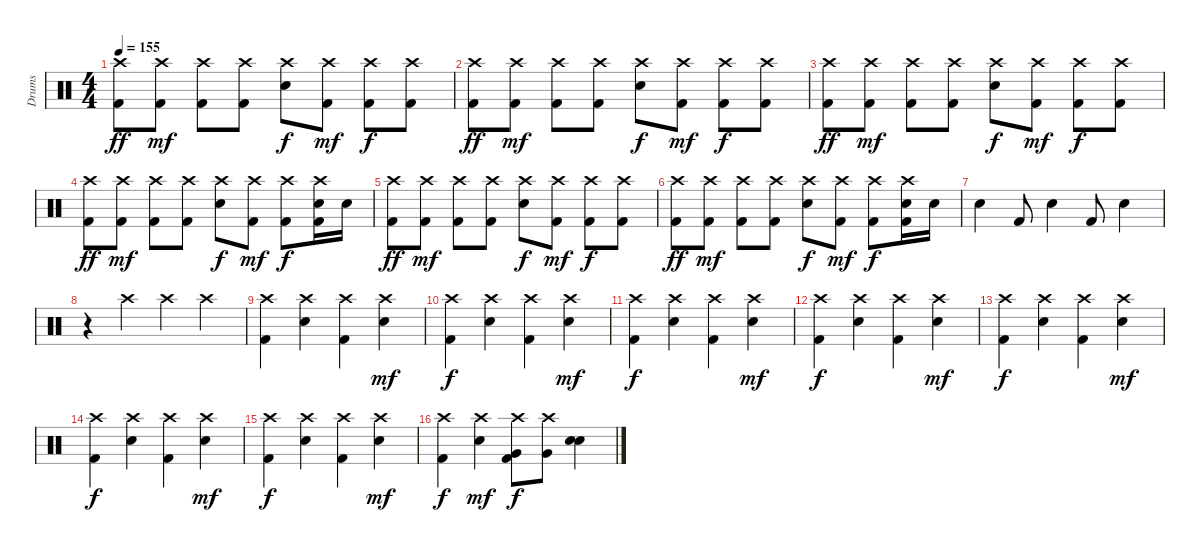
\track ("Drums" "Drums") {instrument percussion}
\staff {score}
\articulation defaults
\ts (4 4)
\tempo 155
\clef neutral
\ks c
("Crash high (hit)" "Kick (hit) 2").8{dy ff} ("Crash high (hit)" "Kick (hit) 2").8{dy mf} ("Crash high (hit)" "Kick (hit) 2").8 ("Crash high (hit)" "Kick (hit) 2").8 ("Crash high (hit)" "Electric Snare (hit)").8{dy f} ("Crash high (hit)" "Kick (hit) 2").8{dy mf} ("Crash high (hit)" "Kick (hit) 2").8{dy f} ("Crash high (hit)" "Kick (hit) 2").8 |
("Crash high (hit)" "Kick (hit) 2").8{dy ff} ("Crash high (hit)" "Kick (hit) 2").8{dy mf} ("Crash high (hit)" "Kick (hit) 2").8 ("Crash high (hit)" "Kick (hit) 2").8 ("Crash high (hit)" "Electric Snare (hit)").8{dy f} ("Crash high (hit)" "Kick (hit) 2").8{dy mf} ("Crash high (hit)" "Kick (hit) 2").8{dy f} ("Crash high (hit)" "Kick (hit) 2").8 |
("Crash high (hit)" "Kick (hit) 2").8{dy ff} ("Crash high (hit)" "Kick (hit) 2").8{dy mf} ("Crash high (hit)" "Kick (hit) 2").8 ("Crash high (hit)" "Kick (hit) 2").8 ("Crash high (hit)" "Electric Snare (hit)").8{dy f} ("Crash high (hit)" "Kick (hit) 2").8{dy mf} ("Crash high (hit)" "Kick (hit) 2").8{dy f} ("Crash high (hit)" "Kick (hit) 2").8 |
("Crash high (hit)" "Kick (hit) 2").8{dy ff} ("Crash high (hit)" "Kick (hit) 2").8{dy mf} ("Crash high (hit)" "Kick (hit) 2").8 ("Crash high (hit)" "Kick (hit) 2").8 ("Crash high (hit)" "Electric Snare (hit)").8{dy f} ("Crash high (hit)" "Kick (hit) 2").8{dy mf} ("Crash high (hit)" "Kick (hit) 2").8{dy f} ("Crash high (hit)" "Electric Snare (hit)" "Kick (hit) 2").16 "Electric Snare (hit)".16 |
("Crash high (hit)" "Kick (hit) 2").8{dy ff} ("Crash high (hit)" "Kick (hit) 2").8{dy mf} ("Crash high (hit)" "Kick (hit) 2").8 ("Crash high (hit)" "Kick (hit) 2").8 ("Crash high (hit)" "Electric Snare (hit)").8{dy f} ("Crash high (hit)" "Kick (hit) 2").8{dy mf} ("Crash high (hit)" "Kick (hit) 2").8{dy f} ("Crash high (hit)" "Kick (hit) 2").8 |
("Crash high (hit)" "Kick (hit) 2").8{dy ff} ("Crash high (hit)" "Kick (hit) 2").8{dy mf} ("Crash high (hit)" "Kick (hit) 2").8 ("Crash high (hit)" "Kick (hit) 2").8 ("Crash high (hit)" "Electric Snare (hit)").8{dy f} ("Crash high (hit)" "Kick (hit) 2").8{dy mf} ("Crash high (hit)" "Kick (hit) 2").8{dy f} ("Crash high (hit)" "Electric Snare (hit)" "Kick (hit) 2").16 "Electric Snare (hit)".16 |
"Electric Snare (hit)".4 "Kick (hit) 2".8 "Electric Snare (hit)".4 "Kick (hit) 2".8 "Electric Snare (hit)".4 |
r.4 "Crash high (hit)".4 "Crash high (hit)".4 "Crash high (hit)".4 |
("Crash high (hit)" "Kick (hit) 2").4 ("Crash high (hit)" "Electric Snare (hit)").4 ("Crash high (hit)" "Kick (hit) 2").4 ("Crash high (hit)" "Electric Snare (hit)").4{dy mf} |
("Crash high (hit)" "Kick (hit) 2").4{dy f} ("Crash high (hit)" "Electric Snare (hit)").4 ("Crash high (hit)" "Kick (hit) 2").4 ("Crash high (hit)" "Electric Snare (hit)").4{dy mf} |
("Crash high (hit)" "Kick (hit) 2").4{dy f} ("Crash high (hit)" "Electric Snare (hit)").4 ("Crash high (hit)" "Kick (hit) 2").4 ("Crash high (hit)" "Electric Snare (hit)").4{dy mf} |
("Crash high (hit)" "Kick (hit) 2").4{dy f} ("Crash high (hit)" "Electric Snare (hit)").4 ("Crash high (hit)" "Kick (hit) 2").4 ("Crash high (hit)" "Electric Snare (hit)").4{dy mf} |
("Crash high (hit)" "Kick (hit) 2").4{dy f} ("Crash high (hit)" "Electric Snare (hit)").4 ("Crash high (hit)" "Kick (hit) 2").4 ("Crash high (hit)" "Electric Snare (hit)").4{dy mf} |
("Crash high (hit)" "Kick (hit) 2").4{dy f} ("Crash high (hit)" "Electric Snare (hit)").4 ("Crash high (hit)" "Kick (hit) 2").4 ("Crash high (hit)" "Electric Snare (hit)").4{dy mf} |
("Crash high (hit)" "Kick (hit) 2").4{dy f} ("Crash high (hit)" "Electric Snare (hit)").4 ("Crash high (hit)" "Kick (hit) 2").4 ("Crash high (hit)" "Electric Snare (hit)").4{dy mf} |
("Crash high (hit)" "Kick (hit) 2").4{dy f} ("Crash high (hit)" "Electric Snare (hit)").4{dy mf} ("Crash high (hit)" "Very Low Tom (hit)" "Kick (hit) 2").8{dy f} ("Crash high (hit)" "Very Low Tom (hit)").8 ("Electric Snare (hit)" "Electric Snare (hit)").4
